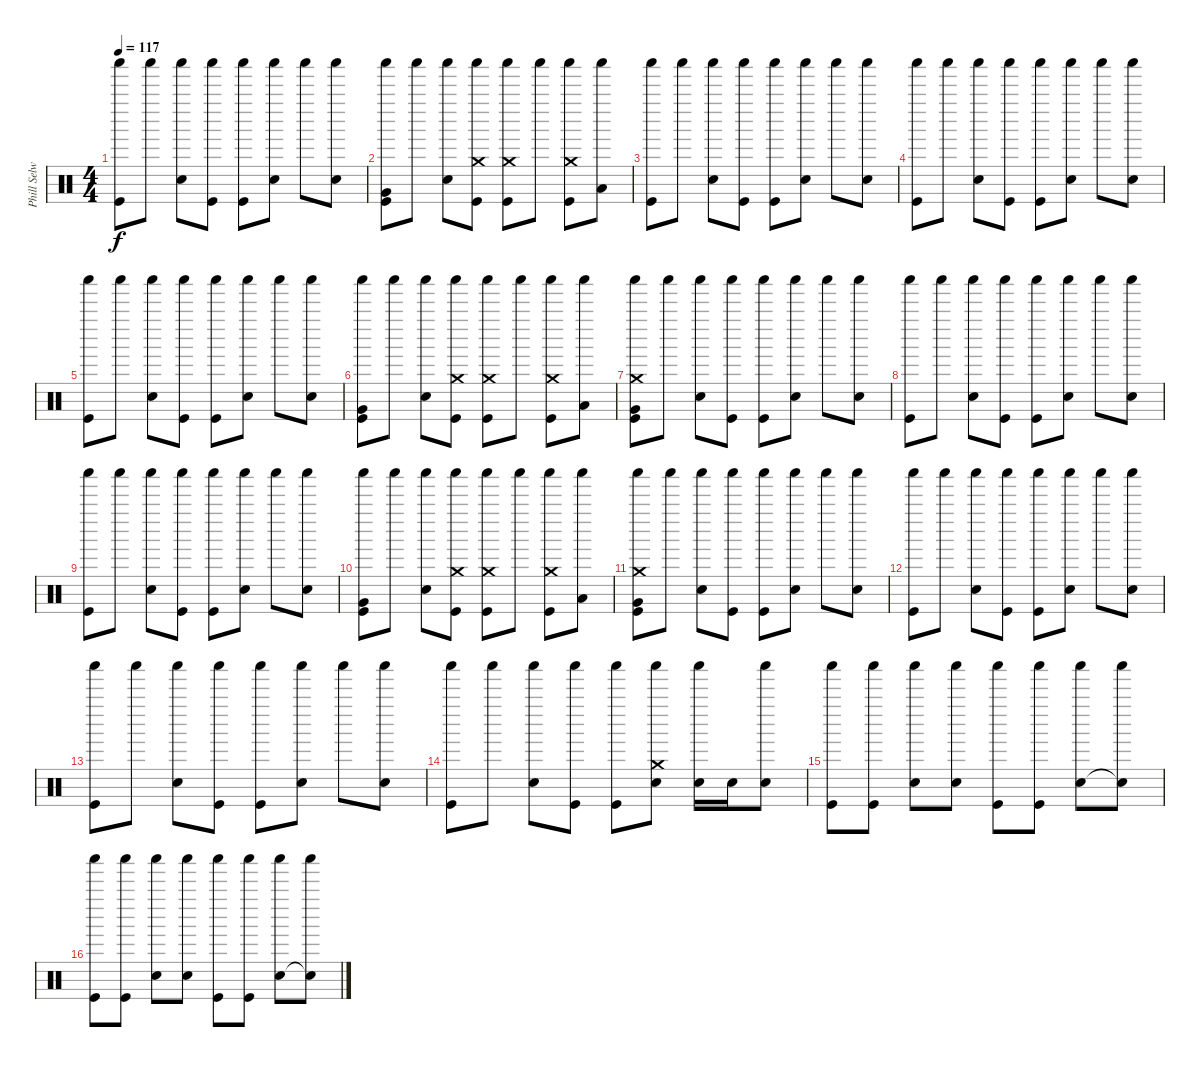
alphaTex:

\track ("Phill Selway" "Phill Selw") {instrument percussion}
\staff {score}
\articulation defaults
\ts (4 4)
\tempo 117
\clef neutral
\ks c
("Shaker (hit)" "Kick (hit)").8{dy f} "Shaker (hit)".8 ("Shaker (hit)" "Snare (hit) 2").8 ("Shaker (hit)" "Kick (hit)").8 ("Shaker (hit)" "Kick (hit)").8 ("Shaker (hit)" "Snare (hit) 2").8 "Shaker (hit)".8 ("Shaker (hit)" "Snare (hit) 2").8 |
("Shaker (hit)" "Kick (hit)" "Very Low Tom (hit)").8 "Shaker (hit)".8 ("Shaker (hit)" "Snare (hit) 2").8 ("Shaker (hit)" "Crash medium (hit)" "Kick (hit)").8 ("Shaker (hit)" "Crash medium (hit)" "Kick (hit)").8 "Shaker (hit)".8 ("Shaker (hit)" "Crash medium (hit)" "Kick (hit)").8 ("Shaker (hit)" "Low Tom (hit)").8 |
("Shaker (hit)" "Kick (hit)").8 "Shaker (hit)".8 ("Shaker (hit)" "Snare (hit) 2").8 ("Shaker (hit)" "Kick (hit)").8 ("Shaker (hit)" "Kick (hit)").8 ("Shaker (hit)" "Snare (hit) 2").8 "Shaker (hit)".8 ("Shaker (hit)" "Snare (hit) 2").8 |
("Shaker (hit)" "Kick (hit)").8 "Shaker (hit)".8 ("Shaker (hit)" "Snare (hit) 2").8 ("Shaker (hit)" "Kick (hit)").8 ("Shaker (hit)" "Kick (hit)").8 ("Shaker (hit)" "Snare (hit) 2").8 "Shaker (hit)".8 ("Shaker (hit)" "Snare (hit) 2").8 |
("Shaker (hit)" "Kick (hit)").8 "Shaker (hit)".8 ("Shaker (hit)" "Snare (hit) 2").8 ("Shaker (hit)" "Kick (hit)").8 ("Shaker (hit)" "Kick (hit)").8 ("Shaker (hit)" "Snare (hit) 2").8 "Shaker (hit)".8 ("Shaker (hit)" "Snare (hit) 2").8 |
("Shaker (hit)" "Kick (hit)" "Very Low Tom (hit)").8 "Shaker (hit)".8 ("Shaker (hit)" "Snare (hit) 2").8 ("Shaker (hit)" "Crash medium (hit)" "Kick (hit)").8 ("Shaker (hit)" "Crash medium (hit)" "Kick (hit)").8 "Shaker (hit)".8 ("Shaker (hit)" "Crash medium (hit)" "Kick (hit)").8 ("Shaker (hit)" "Low Tom (hit)").8 |
("Shaker (hit)" "Crash medium (hit)" "Kick (hit)" "Very Low Tom (hit)").8 "Shaker (hit)".8 ("Shaker (hit)" "Snare (hit) 2").8 ("Shaker (hit)" "Kick (hit)").8 ("Shaker (hit)" "Kick (hit)").8 ("Shaker (hit)" "Snare (hit) 2").8 "Shaker (hit)".8 ("Shaker (hit)" "Snare (hit) 2").8 |
("Shaker (hit)" "Kick (hit)").8 "Shaker (hit)".8 ("Shaker (hit)" "Snare (hit) 2").8 ("Shaker (hit)" "Kick (hit)").8 ("Shaker (hit)" "Kick (hit)").8 ("Shaker (hit)" "Snare (hit) 2").8 "Shaker (hit)".8 ("Shaker (hit)" "Snare (hit) 2").8 |
("Shaker (hit)" "Kick (hit)").8 "Shaker (hit)".8 ("Shaker (hit)" "Snare (hit) 2").8 ("Shaker (hit)" "Kick (hit)").8 ("Shaker (hit)" "Kick (hit)").8 ("Shaker (hit)" "Snare (hit) 2").8 "Shaker (hit)".8 ("Shaker (hit)" "Snare (hit) 2").8 |
("Shaker (hit)" "Kick (hit)" "Very Low Tom (hit)").8 "Shaker (hit)".8 ("Shaker (hit)" "Snare (hit) 2").8 ("Shaker (hit)" "Crash medium (hit)" "Kick (hit)").8 ("Shaker (hit)" "Crash medium (hit)" "Kick (hit)").8 "Shaker (hit)".8 ("Shaker (hit)" "Crash medium (hit)" "Kick (hit)").8 ("Shaker (hit)" "Low Tom (hit)").8 |
("Shaker (hit)" "Crash medium (hit)" "Kick (hit)" "Very Low Tom (hit)").8 "Shaker (hit)".8 ("Shaker (hit)" "Snare (hit) 2").8 ("Shaker (hit)" "Kick (hit)").8 ("Shaker (hit)" "Kick (hit)").8 ("Shaker (hit)" "Snare (hit) 2").8 "Shaker (hit)".8 ("Shaker (hit)" "Snare (hit) 2").8 |
("Shaker (hit)" "Kick (hit)").8 "Shaker (hit)".8 ("Shaker (hit)" "Snare (hit) 2").8 ("Shaker (hit)" "Kick (hit)").8 ("Shaker (hit)" "Kick (hit)").8 ("Shaker (hit)" "Snare (hit) 2").8 "Shaker (hit)".8 ("Shaker (hit)" "Snare (hit) 2").8 |
("Shaker (hit)" "Kick (hit)").8 "Shaker (hit)".8 ("Shaker (hit)" "Snare (hit) 2").8 ("Shaker (hit)" "Kick (hit)").8 ("Shaker (hit)" "Kick (hit)").8 ("Shaker (hit)" "Snare (hit) 2").8 "Shaker (hit)".8 ("Shaker (hit)" "Snare (hit) 2").8 |
("Shaker (hit)" "Kick (hit)").8 "Shaker (hit)".8 ("Shaker (hit)" "Snare (hit) 2").8 ("Shaker (hit)" "Kick (hit)").8 ("Shaker (hit)" "Kick (hit)").8 ("Shaker (hit)" "Crash medium (hit)" "Snare (hit) 2").8 ("Shaker (hit)" "Snare (hit) 2").16 "Snare (hit) 2".16 ("Shaker (hit)" "Snare (hit) 2").8 |
("Shaker (hit)" "Kick (hit)").8 ("Shaker (hit)" "Kick (hit)").8 ("Shaker (hit)" "Snare (hit) 2").8 ("Shaker (hit)" "Snare (hit) 2").8 ("Shaker (hit)" "Kick (hit)").8 ("Shaker (hit)" "Kick (hit)").8 ("Shaker (hit)" "Snare (hit) 2").8 ("Shaker (hit)" "Snare (hit)"{t}).8 |
("Shaker (hit)" "Kick (hit)").8 ("Shaker (hit)" "Kick (hit)").8 ("Shaker (hit)" "Snare (hit) 2").8 ("Shaker (hit)" "Snare (hit) 2").8 ("Shaker (hit)" "Kick (hit)").8 ("Shaker (hit)" "Kick (hit)").8 ("Shaker (hit)" "Snare (hit) 2").8 ("Shaker (hit)" "Snare (hit)"{t}).8
